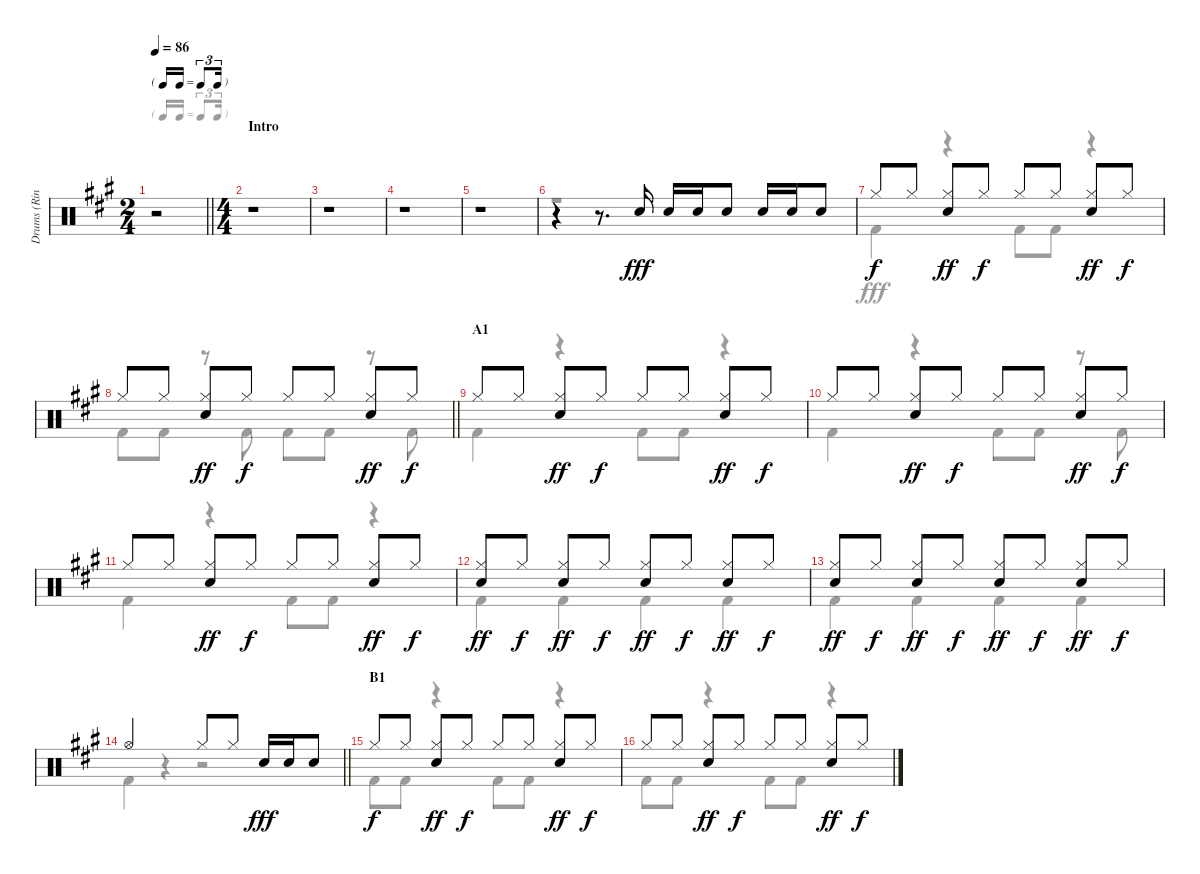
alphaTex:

\track ("Drums (Ringo Starr)" "Drums (Rin") {instrument percussion}
\staff {score}
\articulation defaults
\voice
\ts (2 4)
\tf triplet16th
\tempo 86
\clef neutral
\barLineRight lightlight
\ks a
r.2{dy fff} |
\ts (4 4)
\section ("" "Intro")
r.1 |
r.1 |
r.1 |
r.1 |
r.4 r.8{d} "Snare (hit) 2".16 "Snare (hit) 2".16 "Snare (hit) 2".16 "Snare (hit) 2".8 "Snare (hit) 2".16 "Snare (hit) 2".16 "Snare (hit) 2".8 |
"Hi-Hat (closed)".8{dy f} "Hi-Hat (closed)".8 ("Hi-Hat (closed)" "Snare (hit) 2").8{dy ff} "Hi-Hat (closed)".8{dy f} "Hi-Hat (closed)".8 "Hi-Hat (closed)".8 ("Hi-Hat (closed)" "Snare (hit) 2").8{dy ff} "Hi-Hat (closed)".8{dy f} |
\barLineRight lightlight "Hi-Hat (closed)".8 "Hi-Hat (closed)".8
("Hi-Hat (closed)" "Snare (hit) 2").8{dy ff} "Hi-Hat (closed)".8{dy f} "Hi-Hat (closed)".8 "Hi-Hat (closed)".8 ("Hi-Hat (closed)" "Snare (hit) 2").8{dy ff} "Hi-Hat (closed)".8{dy f} |
\section ("" "A1")
"Hi-Hat (closed)".8 "Hi-Hat (closed)".8 ("Hi-Hat (closed)" "Snare (hit) 2").8{dy ff} "Hi-Hat (closed)".8{dy f} "Hi-Hat (closed)".8 "Hi-Hat (closed)".8 ("Hi-Hat (closed)" "Snare (hit) 2").8{dy ff} "Hi-Hat (closed)".8{dy f} |
"Hi-Hat (closed)".8 "Hi-Hat (closed)".8 ("Hi-Hat (closed)" "Snare (hit) 2").8{dy ff} "Hi-Hat (closed)".8{dy f} "Hi-Hat (closed)".8 "Hi-Hat (closed)".8 ("Hi-Hat (closed)" "Snare (hit) 2").8{dy ff} "Hi-Hat (closed)".8{dy f} |
"Hi-Hat (closed)".8 "Hi-Hat (closed)".8 ("Hi-Hat (closed)" "Snare (hit) 2").8{dy ff} "Hi-Hat (closed)".8{dy f} "Hi-Hat (closed)".8 "Hi-Hat (closed)".8 ("Hi-Hat (closed)" "Snare (hit) 2").8{dy ff} "Hi-Hat (closed)".8{dy f} |
("Hi-Hat (closed)" "Snare (hit) 2").8{dy ff} "Hi-Hat (closed)".8{dy f} ("Hi-Hat (closed)" "Snare (hit) 2").8{dy ff} "Hi-Hat (closed)".8{dy f} ("Hi-Hat (closed)" "Snare (hit) 2").8{dy ff} "Hi-Hat (closed)".8{dy f} ("Hi-Hat (closed)" "Snare (hit) 2").8{dy ff} "Hi-Hat (closed)".8{dy f} |
("Hi-Hat (closed)" "Snare (hit) 2").8{dy ff} "Hi-Hat (closed)".8{dy f} ("Hi-Hat (closed)" "Snare (hit) 2").8{dy ff} "Hi-Hat (closed)".8{dy f} ("Hi-Hat (closed)" "Snare (hit) 2").8{dy ff} "Hi-Hat (closed)".8{dy f} ("Hi-Hat (closed)" "Snare (hit) 2").8{dy ff} "Hi-Hat (closed)".8{dy f} |
\barLineRight lightlight "Hi-Hat (open)".2 "Hi-Hat (closed)".8 "Hi-Hat (closed)".8 "Snare (hit) 2".16{dy fff} "Snare (hit) 2".16 "Snare (hit) 2".8
|
\section ("" "B1")
"Hi-Hat (closed)".8{dy f} "Hi-Hat (closed)".8 ("Hi-Hat (closed)" "Snare (hit) 2").8{dy ff} "Hi-Hat (closed)".8{dy f} "Hi-Hat (closed)".8 "Hi-Hat (closed)".8 ("Hi-Hat (closed)" "Snare (hit) 2").8{dy ff} "Hi-Hat (closed)".8{dy f} |
"Hi-Hat (closed)".8 "Hi-Hat (closed)".8 ("Hi-Hat (closed)" "Snare (hit) 2").8{dy ff} "Hi-Hat (closed)".8{dy f} "Hi-Hat (closed)".8 "Hi-Hat (closed)".8 ("Hi-Hat (closed)" "Snare (hit) 2").8{dy ff} "Hi-Hat (closed)".8{dy f}
\voice
\clef neutral
\ottava regular
\simile none
\barLineRight lightlight
\ks a
r.2{dy fff} |
r.1 |
r.1 |
r.1 |
r.1 |
r.1 |
"Kick (hit) 2".4 r.4 "Kick (hit) 2".8 "Kick (hit) 2".8 r.4 |
\barLineRight lightlight "Kick (hit) 2".8 "Kick (hit) 2".8
r.8 "Kick (hit) 2".8 "Kick (hit) 2".8 "Kick (hit) 2".8 r.8 "Kick (hit) 2".8 |
"Kick (hit) 2".4 r.4 "Kick (hit) 2".8 "Kick (hit) 2".8 r.4 |
"Kick (hit) 2".4 r.4 "Kick (hit) 2".8 "Kick (hit) 2".8 r.8 "Kick (hit) 2".8 |
"Kick (hit) 2".4 r.4 "Kick (hit) 2".8 "Kick (hit) 2".8 r.4 |
"Kick (hit) 2".4 "Kick (hit) 2".4 "Kick (hit) 2".4 "Kick (hit) 2".4 |
"Kick (hit) 2".4 "Kick (hit) 2".4 "Kick (hit) 2".4 "Kick (hit) 2".4 |
\barLineRight lightlight "Kick (hit) 2".4
r.4 r.2 |
"Kick (hit) 2".8 "Kick (hit) 2".8 r.4 "Kick (hit) 2".8 "Kick (hit) 2".8 r.4 |
"Kick (hit) 2".8 "Kick (hit) 2".8 r.4 "Kick (hit) 2".8 "Kick (hit) 2".8 r.4
